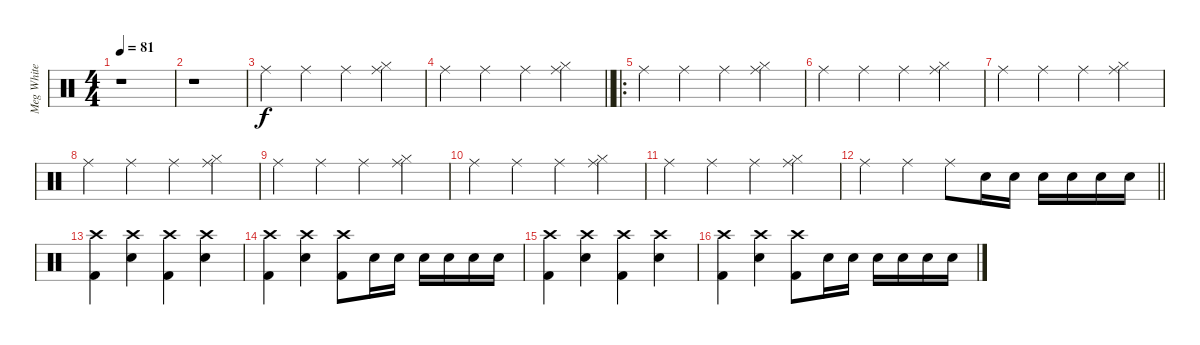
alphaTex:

\track ("Meg White" "Meg White") {instrument percussion}
\staff {score}
\articulation defaults
\ts (4 4)
\tempo 81
\clef neutral
\ks c
r.1{dy f} |
r.1 |
"Ride (middle)".4 "Ride (middle)".4 "Ride (middle)".4 ("Ride (middle)" "Hi-Hat (closed)").4 |
\barLineRight lightlight "Ride (middle)".4 "Ride (middle)".4 "Ride (middle)".4
("Ride (middle)" "Hi-Hat (closed)").4 |
\ro "Ride (middle)".4 "Ride (middle)".4 "Ride (middle)".4
("Ride (middle)" "Hi-Hat (closed)").4 |
"Ride (middle)".4 "Ride (middle)".4 "Ride (middle)".4 ("Ride (middle)" "Hi-Hat (closed)").4 |
"Ride (middle)".4 "Ride (middle)".4 "Ride (middle)".4 ("Ride (middle)" "Hi-Hat (closed)").4 |
"Ride (middle)".4 "Ride (middle)".4 "Ride (middle)".4 ("Ride (middle)" "Hi-Hat (closed)").4 |
"Ride (middle)".4 "Ride (middle)".4 "Ride (middle)".4 ("Ride (middle)" "Hi-Hat (closed)").4 |
"Ride (middle)".4 "Ride (middle)".4 "Ride (middle)".4 ("Ride (middle)" "Hi-Hat (closed)").4 |
"Ride (middle)".4 "Ride (middle)".4 "Ride (middle)".4 ("Ride (middle)" "Hi-Hat (closed)").4 |
\barLineRight lightlight "Ride (middle)".4 "Ride (middle)".4 "Ride (middle)".8 "Electric Snare (hit)".16 "Electric Snare (hit)".16 "Electric Snare (hit)".16 "Electric Snare (hit)".16 "Electric Snare (hit)".16 "Electric Snare (hit)".16
|
("Crash high (hit)" "Kick (hit) 2").4 ("Crash high (hit)" "Electric Snare (hit)").4 ("Crash high (hit)" "Kick (hit) 2").4 ("Crash high (hit)" "Electric Snare (hit)").4 |
("Crash high (hit)" "Kick (hit) 2").4 ("Crash high (hit)" "Electric Snare (hit)").4 ("Crash high (hit)" "Kick (hit) 2").8 "Electric Snare (hit)".16 "Electric Snare (hit)".16 "Electric Snare (hit)".16 "Electric Snare (hit)".16 "Electric Snare (hit)".16 "Electric Snare (hit)".16 |
("Crash high (hit)" "Kick (hit) 2").4 ("Crash high (hit)" "Electric Snare (hit)").4 ("Crash high (hit)" "Kick (hit) 2").4 ("Crash high (hit)" "Electric Snare (hit)").4 |
("Crash high (hit)" "Kick (hit) 2").4 ("Crash high (hit)" "Electric Snare (hit)").4 ("Crash high (hit)" "Kick (hit) 2").8 "Electric Snare (hit)".16 "Electric Snare (hit)".16 "Electric Snare (hit)".16 "Electric Snare (hit)".16 "Electric Snare (hit)".16 "Electric Snare (hit)".16
